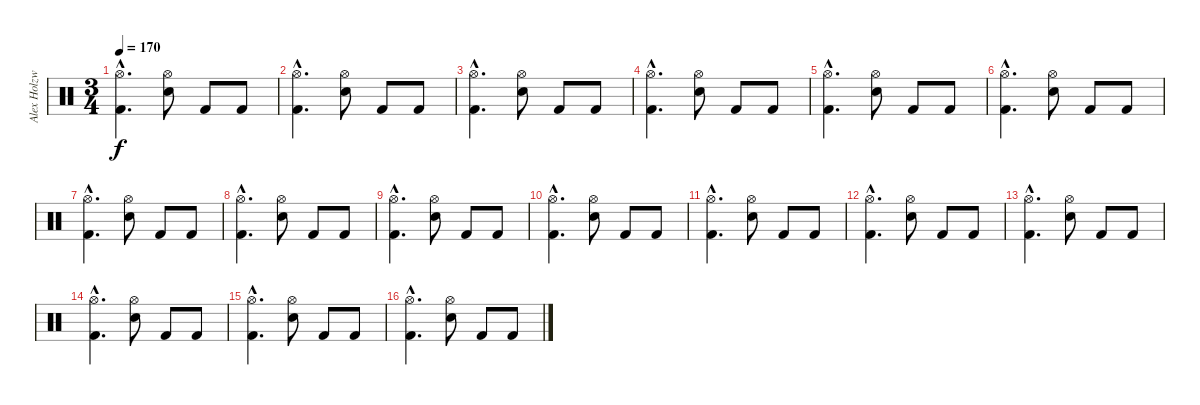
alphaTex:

\track ("Alex Holzwarth - Drums" "Alex Holzw") {instrument percussion}
\staff {score}
\articulation defaults
\ts (3 4)
\tempo 170
\clef neutral
\ks c
("Hi-Hat (open)"{hac} "Kick (hit) 2"{hac}).4{d dy f} ("Hi-Hat (open)" "Snare (hit) 2").8 "Kick (hit) 2".8 "Kick (hit) 2".8 |
("Hi-Hat (open)"{hac} "Kick (hit) 2"{hac}).4{d} ("Hi-Hat (open)" "Snare (hit) 2").8 "Kick (hit) 2".8 "Kick (hit) 2".8 |
("Hi-Hat (open)"{hac} "Kick (hit) 2"{hac}).4{d} ("Hi-Hat (open)" "Snare (hit) 2").8 "Kick (hit) 2".8 "Kick (hit) 2".8 |
("Hi-Hat (open)"{hac} "Kick (hit) 2"{hac}).4{d} ("Hi-Hat (open)" "Snare (hit) 2").8 "Kick (hit) 2".8 "Kick (hit) 2".8 |
("Hi-Hat (open)"{hac} "Kick (hit) 2"{hac}).4{d} ("Hi-Hat (open)" "Snare (hit) 2").8 "Kick (hit) 2".8 "Kick (hit) 2".8 |
("Hi-Hat (open)"{hac} "Kick (hit) 2"{hac}).4{d} ("Hi-Hat (open)" "Snare (hit) 2").8 "Kick (hit) 2".8 "Kick (hit) 2".8 |
("Hi-Hat (open)"{hac} "Kick (hit) 2"{hac}).4{d} ("Hi-Hat (open)" "Snare (hit) 2").8 "Kick (hit) 2".8 "Kick (hit) 2".8 |
("Hi-Hat (open)"{hac} "Kick (hit) 2"{hac}).4{d} ("Hi-Hat (open)" "Snare (hit) 2").8 "Kick (hit) 2".8 "Kick (hit) 2".8 |
("Hi-Hat (open)"{hac} "Kick (hit) 2"{hac}).4{d} ("Hi-Hat (open)" "Snare (hit) 2").8 "Kick (hit) 2".8 "Kick (hit) 2".8 |
("Hi-Hat (open)"{hac} "Kick (hit) 2"{hac}).4{d} ("Hi-Hat (open)" "Snare (hit) 2").8 "Kick (hit) 2".8 "Kick (hit) 2".8 |
("Hi-Hat (open)"{hac} "Kick (hit) 2"{hac}).4{d} ("Hi-Hat (open)" "Snare (hit) 2").8 "Kick (hit) 2".8 "Kick (hit) 2".8 |
("Hi-Hat (open)"{hac} "Kick (hit) 2"{hac}).4{d} ("Hi-Hat (open)" "Snare (hit) 2").8 "Kick (hit) 2".8 "Kick (hit) 2".8 |
("Hi-Hat (open)"{hac} "Kick (hit) 2"{hac}).4{d} ("Hi-Hat (open)" "Snare (hit) 2").8 "Kick (hit) 2".8 "Kick (hit) 2".8 |
("Hi-Hat (open)"{hac} "Kick (hit) 2"{hac}).4{d} ("Hi-Hat (open)" "Snare (hit) 2").8 "Kick (hit) 2".8 "Kick (hit) 2".8 |
("Hi-Hat (open)"{hac} "Kick (hit) 2"{hac}).4{d} ("Hi-Hat (open)" "Snare (hit) 2").8 "Kick (hit) 2".8 "Kick (hit) 2".8 |
("Hi-Hat (open)"{hac} "Kick (hit) 2"{hac}).4{d} ("Hi-Hat (open)" "Snare (hit) 2").8 "Kick (hit) 2".8 "Kick (hit) 2".8
